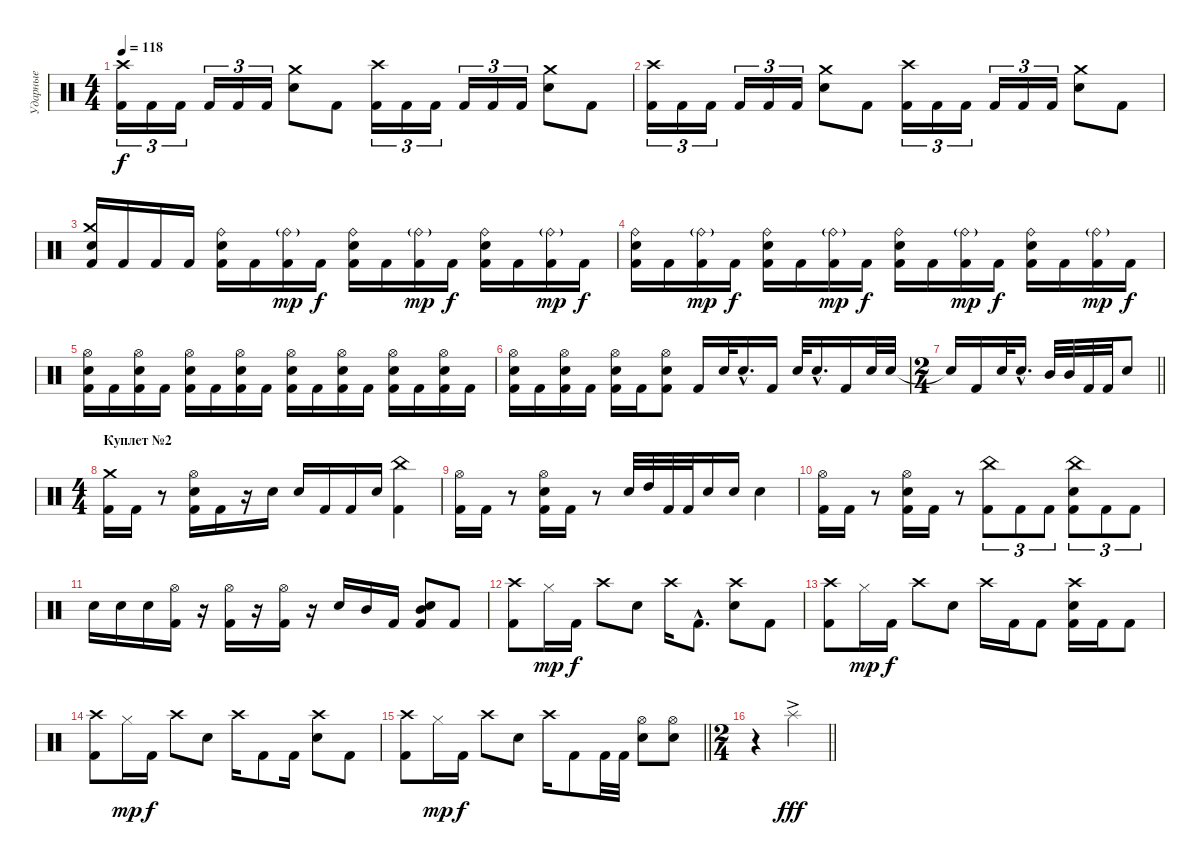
\track ("Ударные" "Ударные") {instrument percussion}
\staff {score}
\articulation defaults
\ts (4 4)
\tempo 118
\clef neutral
\ks c
("Crash high (hit)" "Kick (hit) 2").16{tu (3 2) dy f} "Kick (hit) 2".16{tu (3 2)} "Kick (hit) 2".16{tu (3 2)} "Kick (hit) 2".16{tu (3 2)} "Kick (hit) 2".16{tu (3 2)} "Kick (hit) 2".16{tu (3 2)} ("Crash medium (hit)" "Electric Snare (hit)").8 "Kick (hit) 2".8 ("Crash high (hit)" "Kick (hit) 2").16{tu (3 2)} "Kick (hit) 2".16{tu (3 2)} "Kick (hit) 2".16{tu (3 2)} "Kick (hit) 2".16{tu (3 2)} "Kick (hit) 2".16{tu (3 2)} "Kick (hit) 2".16{tu (3 2)} ("Crash medium (hit)" "Electric Snare (hit)").8 "Kick (hit) 2".8 |
("Crash high (hit)" "Kick (hit) 2").16{tu (3 2)} "Kick (hit) 2".16{tu (3 2)} "Kick (hit) 2".16{tu (3 2)} "Kick (hit) 2".16{tu (3 2)} "Kick (hit) 2".16{tu (3 2)} "Kick (hit) 2".16{tu (3 2)} ("Crash medium (hit)" "Electric Snare (hit)").8 "Kick (hit) 2".8 ("Crash high (hit)" "Kick (hit) 2").16{tu (3 2)} "Kick (hit) 2".16{tu (3 2)} "Kick (hit) 2".16{tu (3 2)} "Kick (hit) 2".16{tu (3 2)} "Kick (hit) 2".16{tu (3 2)} "Kick (hit) 2".16{tu (3 2)} ("Crash medium (hit)" "Electric Snare (hit)").8 "Kick (hit) 2".8 |
("Crash medium (hit)" "Electric Snare (hit)" "Kick (hit) 2").16 "Kick (hit) 2".16 "Kick (hit) 2".16 "Kick (hit) 2".16 ("Ride (bell)" "Electric Snare (hit)" "Kick (hit) 2").16 "Kick (hit) 2".16 ("Ride (bell)"{g} "Kick (hit) 2").16{dy mp} "Kick (hit) 2".16{dy f} ("Ride (bell)" "Electric Snare (hit)" "Kick (hit) 2").16 "Kick (hit) 2".16 ("Ride (bell)"{g} "Kick (hit) 2").16{dy mp} "Kick (hit) 2".16{dy f} ("Ride (bell)" "Electric Snare (hit)" "Kick (hit) 2").16 "Kick (hit) 2".16 ("Ride (bell)"{g} "Kick (hit) 2").16{dy mp} "Kick (hit) 2".16{dy f} |
("Ride (bell)" "Electric Snare (hit)" "Kick (hit) 2").16 "Kick (hit) 2".16 ("Ride (bell)"{g} "Kick (hit) 2").16{dy mp} "Kick (hit) 2".16{dy f} ("Ride (bell)" "Electric Snare (hit)" "Kick (hit) 2").16 "Kick (hit) 2".16 ("Ride (bell)"{g} "Kick (hit) 2").16{dy mp} "Kick (hit) 2".16{dy f} ("Ride (bell)" "Electric Snare (hit)" "Kick (hit) 2").16 "Kick (hit) 2".16 ("Ride (bell)"{g} "Kick (hit) 2").16{dy mp} "Kick (hit) 2".16{dy f} ("Ride (bell)" "Electric Snare (hit)" "Kick (hit) 2").16 "Kick (hit) 2".16 ("Ride (bell)"{g} "Kick (hit) 2").16{dy mp} "Kick (hit) 2".16{dy f} |
("Hi-Hat (open)" "Electric Snare (hit)" "Kick (hit) 2").16 "Kick (hit) 2".16 ("Hi-Hat (open)" "Electric Snare (hit)" "Kick (hit) 2").16 "Kick (hit) 2".16 ("Hi-Hat (open)" "Electric Snare (hit)" "Kick (hit) 2").16 "Kick (hit) 2".16 ("Hi-Hat (open)" "Electric Snare (hit)" "Kick (hit) 2").16 "Kick (hit) 2".16 ("Hi-Hat (open)" "Electric Snare (hit)" "Kick (hit) 2").16 "Kick (hit) 2".16 ("Hi-Hat (open)" "Electric Snare (hit)" "Kick (hit) 2").16 "Kick (hit) 2".16 ("Hi-Hat (open)" "Electric Snare (hit)" "Kick (hit) 2").16 "Kick (hit) 2".16 ("Hi-Hat (open)" "Electric Snare (hit)" "Kick (hit) 2").16 "Kick (hit) 2".16 |
("Hi-Hat (open)" "Electric Snare (hit)" "Kick (hit) 2").16 "Kick (hit) 2".16 ("Hi-Hat (open)" "Electric Snare (hit)" "Kick (hit) 2").16 "Kick (hit) 2".16 ("Hi-Hat (open)" "Electric Snare (hit)" "Kick (hit) 2").16 "Kick (hit) 2".16 ("Hi-Hat (open)" "Electric Snare (hit)" "Kick (hit) 2").8 "Kick (hit) 2".16 "Electric Snare (hit)".32 "Electric Snare (hit)"{hac}.16{d} "Kick (hit) 2".16 "Electric Snare (hit)".32 "Electric Snare (hit)"{hac}.16{d} "Kick (hit) 2".16 "Electric Snare (hit)".32 "Electric Snare (hit)".32 |
\ts (2 4)
\barLineRight lightlight "Snare (hit)"{t}.16 "Kick (hit) 2".16 "Electric Snare (hit)".32 "Electric Snare (hit)"{hac}.16{d} "Mid Tom (hit)".32 "Mid Tom (hit)".32 "Kick (hit) 2".32 "Kick (hit) 2".32 "Electric Snare (hit)".8
|
\ts (4 4)
\section ("" "Куплет №2")
("Crash medium (hit)" "Kick (hit) 2").16 "Kick (hit) 2".16 r.8 ("Hi-Hat (open)" "Electric Snare (hit)" "Kick (hit) 2").16 "Kick (hit) 2".16 r.16 "Electric Snare (hit)".16 "Electric Snare (hit)".16 "Kick (hit) 2".16 "Kick (hit) 2".16 "Electric Snare (hit)".16 ("China (hit)" "Kick (hit) 2").4 |
("Hi-Hat (open)" "Kick (hit) 2").16 "Kick (hit) 2".16 r.8 ("Hi-Hat (open)" "Electric Snare (hit)" "Kick (hit) 2").16 "Kick (hit) 2".16 r.8 "Electric Snare (hit)".32 "High Tom (hit)".32 "Kick (hit) 2".32 "Kick (hit) 2".32 "Electric Snare (hit)".16 "Electric Snare (hit)".16 "Electric Snare (hit)".4 |
("Hi-Hat (open)" "Kick (hit) 2").16 "Kick (hit) 2".16 r.8 ("Hi-Hat (open)" "Electric Snare (hit)" "Kick (hit) 2").16 "Kick (hit) 2".16 r.8 ("China (hit)" "Kick (hit) 2").8{tu (3 2)} "Kick (hit) 2".8{tu (3 2)} "Kick (hit) 2".8{tu (3 2)} ("China (hit)" "Electric Snare (hit)" "Kick (hit) 2").8{tu (3 2)} "Kick (hit) 2".8{tu (3 2)} "Kick (hit) 2".8{tu (3 2)} |
"Electric Snare (hit)".16 "Electric Snare (hit)".16 "Electric Snare (hit)".16 ("Hi-Hat (open)" "Kick (hit) 2").16 r.16 ("Hi-Hat (open)" "Kick (hit) 2").16 r.16 ("Hi-Hat (open)" "Kick (hit) 2").16 r.16 "Electric Snare (hit)".16 "Mid Tom (hit)".16 "Kick (hit) 2".16 ("Mid Tom (hit)" "Electric Snare (hit)" "Kick (hit) 2").8{bd 120} "Kick (hit) 2".8 |
("Crash high (hit)" "Kick (hit) 2").8 "Hi-Hat (closed)".16{dy mp} "Kick (hit) 2".16{dy f} "Crash high (hit)".8 "Electric Snare (hit)".8 "Crash high (hit)".16 "Kick (hit) 2"{hac}.8{d} ("Crash high (hit)" "Electric Snare (hit)").8 "Kick (hit) 2".8 |
("Crash high (hit)" "Kick (hit) 2").8 "Hi-Hat (closed)".16{dy mp} "Kick (hit) 2".16{dy f} "Crash high (hit)".8 "Electric Snare (hit)".8 "Crash high (hit)".16 "Kick (hit) 2".16 "Kick (hit) 2".8 ("Crash high (hit)" "Electric Snare (hit)" "Kick (hit) 2").16 "Kick (hit) 2".16 "Kick (hit) 2".8 |
("Crash high (hit)" "Kick (hit) 2").8 "Hi-Hat (closed)".16{dy mp} "Kick (hit) 2".16{dy f} "Crash high (hit)".8 "Electric Snare (hit)".8 "Crash high (hit)".16 "Kick (hit) 2".8 "Kick (hit) 2".16 ("Crash high (hit)" "Electric Snare (hit)").8 "Kick (hit) 2".8 |
\barLineRight lightlight
("Crash high (hit)" "Kick (hit) 2").8 "Hi-Hat (closed)".16{dy mp} "Kick (hit) 2".16{dy f} "Crash high (hit)".8 "Electric Snare (hit)".8 "Crash high (hit)".16 "Kick (hit) 2".8 "Kick (hit) 2".32 "Kick (hit) 2".32 ("Hi-Hat (open)" "Electric Snare (hit)").8 ("Hi-Hat (open)" "Electric Snare (hit)").8 |
\ts (2 4)
\barLineRight lightlight
r.4 "Splash (hit)"{ac}.4{dy fff}
